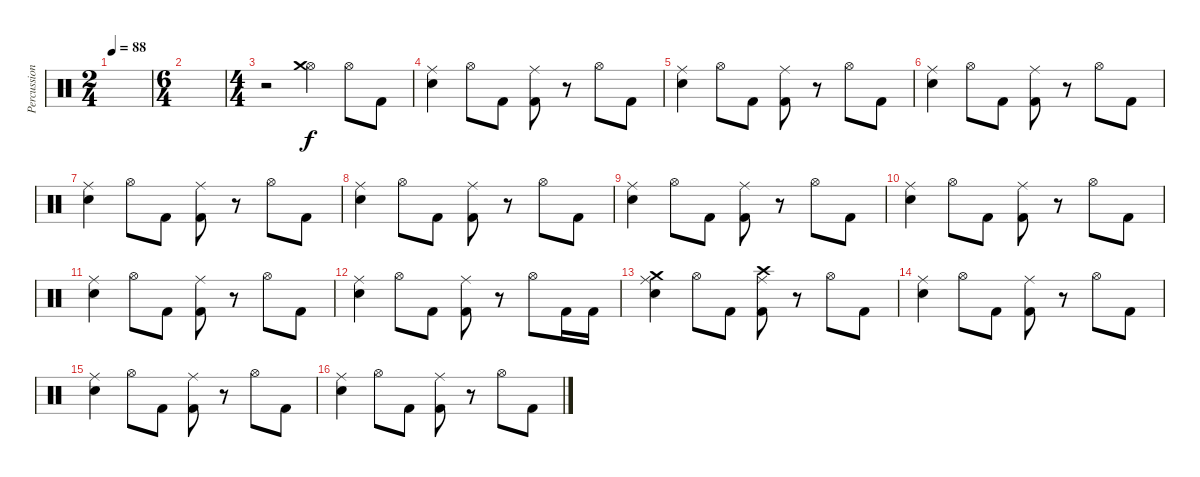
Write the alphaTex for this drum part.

\track ("Percussion" "Percussion") {instrument percussion}
\staff {score}
\articulation defaults
\ts (2 4)
\tempo 88
\clef neutral
\ks c
|
\ts (6 4)
|
\ts (4 4)
r.2 ("Hi-Hat (open)" "Crash medium (hit)").4 "Hi-Hat (open)".8 "Kick (hit) 2".8 |
("Electric Snare (hit)" "Ride (middle)").4 "Hi-Hat (open)".8 "Kick (hit) 2".8 ("Kick (hit) 2" "Ride (middle)").8 r.8 "Hi-Hat (open)".8 "Kick (hit) 2".8 |
("Electric Snare (hit)" "Ride (middle)").4 "Hi-Hat (open)".8 "Kick (hit) 2".8 ("Kick (hit) 2" "Ride (middle)").8 r.8 "Hi-Hat (open)".8 "Kick (hit) 2".8 |
("Electric Snare (hit)" "Ride (middle)").4 "Hi-Hat (open)".8 "Kick (hit) 2".8 ("Kick (hit) 2" "Ride (middle)").8 r.8 "Hi-Hat (open)".8 "Kick (hit) 2".8 |
("Electric Snare (hit)" "Ride (middle)").4 "Hi-Hat (open)".8 "Kick (hit) 2".8 ("Kick (hit) 2" "Ride (middle)").8 r.8 "Hi-Hat (open)".8 "Kick (hit) 2".8 |
("Electric Snare (hit)" "Ride (middle)").4 "Hi-Hat (open)".8 "Kick (hit) 2".8 ("Kick (hit) 2" "Ride (middle)").8 r.8 "Hi-Hat (open)".8 "Kick (hit) 2".8 |
("Electric Snare (hit)" "Ride (middle)").4 "Hi-Hat (open)".8 "Kick (hit) 2".8 ("Kick (hit) 2" "Ride (middle)").8 r.8 "Hi-Hat (open)".8 "Kick (hit) 2".8 |
("Electric Snare (hit)" "Ride (middle)").4 "Hi-Hat (open)".8 "Kick (hit) 2".8 ("Kick (hit) 2" "Ride (middle)").8 r.8 "Hi-Hat (open)".8 "Kick (hit) 2".8 |
("Electric Snare (hit)" "Ride (middle)").4 "Hi-Hat (open)".8 "Kick (hit) 2".8 ("Kick (hit) 2" "Ride (middle)").8 r.8 "Hi-Hat (open)".8 "Kick (hit) 2".8 |
("Electric Snare (hit)" "Ride (middle)").4 "Hi-Hat (open)".8 "Kick (hit) 2".8 ("Kick (hit) 2" "Ride (middle)").8 r.8 "Hi-Hat (open)".8 "Kick (hit) 2".16 "Kick (hit) 2".16 |
("Electric Snare (hit)" "Ride (middle)" "Crash medium (hit)").4 "Hi-Hat (open)".8 "Kick (hit) 2".8 ("Kick (hit) 2" "Ride (middle)" "Crash high (hit)").8 r.8 "Hi-Hat (open)".8 "Kick (hit) 2".8 |
("Electric Snare (hit)" "Ride (middle)").4 "Hi-Hat (open)".8 "Kick (hit) 2".8 ("Kick (hit) 2" "Ride (middle)").8 r.8 "Hi-Hat (open)".8 "Kick (hit) 2".8 |
("Electric Snare (hit)" "Ride (middle)").4 "Hi-Hat (open)".8 "Kick (hit) 2".8 ("Kick (hit) 2" "Ride (middle)").8 r.8 "Hi-Hat (open)".8 "Kick (hit) 2".8 |
("Electric Snare (hit)" "Ride (middle)").4 "Hi-Hat (open)".8 "Kick (hit) 2".8 ("Kick (hit) 2" "Ride (middle)").8 r.8 "Hi-Hat (open)".8 "Kick (hit) 2".8
